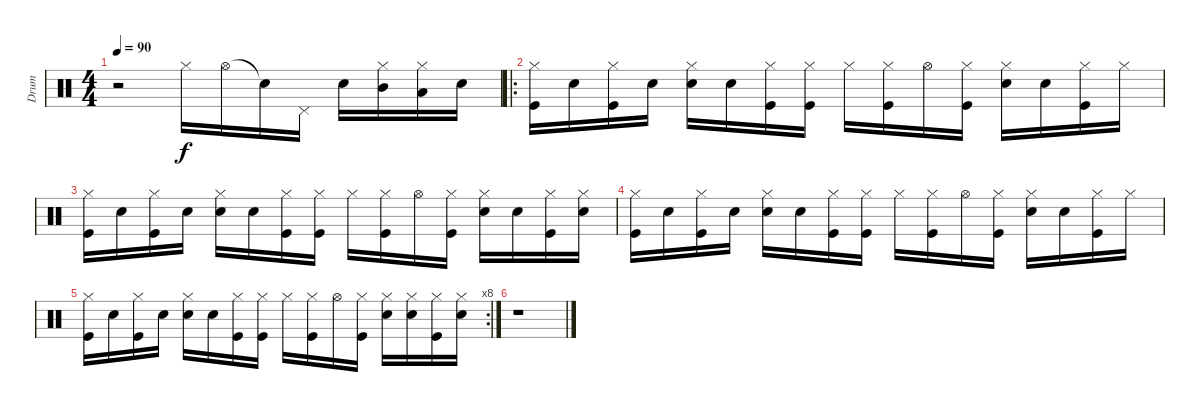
\track ("Drum" "Drum") {instrument percussion}
\staff {score}
\articulation defaults
\ts (4 4)
\tempo 90
\clef neutral
\ks c
r.2{dy f} "Hi-Hat (closed)".16 "Hi-Hat (open)".16 "Snare (hit)"{t}.16 "Pedal Hi-Hat (hit)".16 "Snare (hit)".16 ("Hi-Hat (closed)" "Mid Tom (hit)").16 ("Hi-Hat (closed)" "Low Tom (hit)").16 "Snare (hit)".16 |
\ro
("Hi-Hat (closed)" "Kick (hit)").16 "Snare (hit)".16 ("Hi-Hat (closed)" "Kick (hit)").16 "Snare (hit)".16 ("Hi-Hat (closed)" "Snare (hit) 2").16 "Snare (hit)".16 ("Hi-Hat (closed)" "Kick (hit)").16 ("Hi-Hat (closed)" "Kick (hit)").16 "Hi-Hat (closed)".16 ("Hi-Hat (closed)" "Kick (hit)").16 "Hi-Hat (open)".16 ("Hi-Hat (closed)" "Kick (hit)").16 ("Hi-Hat (closed)" "Snare (hit) 2").16 "Snare (hit)".16 ("Hi-Hat (closed)" "Kick (hit)").16 "Hi-Hat (closed)".16 |
("Hi-Hat (closed)" "Kick (hit)").16 "Snare (hit)".16 ("Hi-Hat (closed)" "Kick (hit)").16 "Snare (hit)".16 ("Hi-Hat (closed)" "Snare (hit) 2").16 "Snare (hit)".16 ("Hi-Hat (closed)" "Kick (hit)").16 ("Hi-Hat (closed)" "Kick (hit)").16 "Hi-Hat (closed)".16 ("Hi-Hat (closed)" "Kick (hit)").16 "Hi-Hat (open)".16 ("Hi-Hat (closed)" "Kick (hit)").16 ("Hi-Hat (closed)" "Snare (hit) 2").16 "Snare (hit)".16 ("Hi-Hat (closed)" "Kick (hit)").16 ("Hi-Hat (closed)" "Snare (hit) 2").16 |
("Hi-Hat (closed)" "Kick (hit)").16 "Snare (hit)".16 ("Hi-Hat (closed)" "Kick (hit)").16 "Snare (hit)".16 ("Hi-Hat (closed)" "Snare (hit) 2").16 "Snare (hit)".16 ("Hi-Hat (closed)" "Kick (hit)").16 ("Hi-Hat (closed)" "Kick (hit)").16 "Hi-Hat (closed)".16 ("Hi-Hat (closed)" "Kick (hit)").16 "Hi-Hat (open)".16 ("Hi-Hat (closed)" "Kick (hit)").16 ("Hi-Hat (closed)" "Snare (hit) 2").16 "Snare (hit)".16 ("Hi-Hat (closed)" "Kick (hit)").16 "Hi-Hat (closed)".16 |
\rc 8
("Hi-Hat (closed)" "Kick (hit)").16 "Snare (hit)".16 ("Hi-Hat (closed)" "Kick (hit)").16 "Snare (hit)".16 ("Hi-Hat (closed)" "Snare (hit) 2").16 "Snare (hit)".16 ("Hi-Hat (closed)" "Kick (hit)").16 ("Hi-Hat (closed)" "Kick (hit)").16 "Hi-Hat (closed)".16 ("Hi-Hat (closed)" "Kick (hit)").16 "Hi-Hat (open)".16 ("Hi-Hat (closed)" "Kick (hit)").16 ("Hi-Hat (closed)" "Snare (hit) 2").16 ("Hi-Hat (closed)" "Snare (hit) 2").16 ("Hi-Hat (closed)" "Kick (hit)").16 ("Hi-Hat (closed)" "Snare (hit) 2").16 |
r.1
